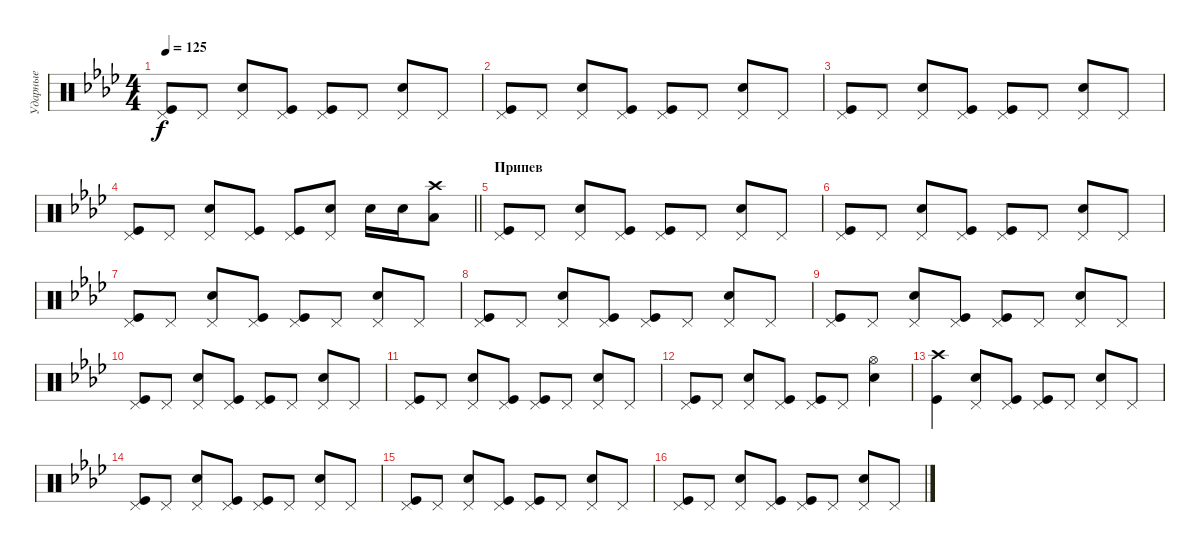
\track ("Ударные" "Ударные") {solo instrument percussion}
\staff {score}
\articulation defaults
\ts (4 4)
\tempo 125
\clef neutral
\ks fminor
("Pedal Hi-Hat (hit)" "Kick (hit)").8{dy f} "Pedal Hi-Hat (hit)".8 ("Pedal Hi-Hat (hit)" "Electric Snare (hit)").8 ("Pedal Hi-Hat (hit)" "Kick (hit)").8 ("Pedal Hi-Hat (hit)" "Kick (hit)").8 "Pedal Hi-Hat (hit)".8 ("Pedal Hi-Hat (hit)" "Electric Snare (hit)").8 "Pedal Hi-Hat (hit)".8 |
("Pedal Hi-Hat (hit)" "Kick (hit)").8 "Pedal Hi-Hat (hit)".8 ("Pedal Hi-Hat (hit)" "Electric Snare (hit)").8 ("Pedal Hi-Hat (hit)" "Kick (hit)").8 ("Pedal Hi-Hat (hit)" "Kick (hit)").8 "Pedal Hi-Hat (hit)".8 ("Pedal Hi-Hat (hit)" "Electric Snare (hit)").8 "Pedal Hi-Hat (hit)".8 |
("Pedal Hi-Hat (hit)" "Kick (hit)").8 "Pedal Hi-Hat (hit)".8 ("Pedal Hi-Hat (hit)" "Electric Snare (hit)").8 ("Pedal Hi-Hat (hit)" "Kick (hit)").8 ("Pedal Hi-Hat (hit)" "Kick (hit)").8 "Pedal Hi-Hat (hit)".8 ("Pedal Hi-Hat (hit)" "Electric Snare (hit)").8 "Pedal Hi-Hat (hit)".8 |
\barLineRight lightlight
("Pedal Hi-Hat (hit)" "Kick (hit)").8 "Pedal Hi-Hat (hit)".8 ("Pedal Hi-Hat (hit)" "Electric Snare (hit)").8 ("Pedal Hi-Hat (hit)" "Kick (hit)").8 ("Pedal Hi-Hat (hit)" "Kick (hit)").8 ("Pedal Hi-Hat (hit)" "Electric Snare (hit)").8 "Electric Snare (hit)".16 "Electric Snare (hit)".16 ("Crash high (hit)" "Low Floor Tom (hit)").8 |
\section ("" "Припев")
("Pedal Hi-Hat (hit)" "Kick (hit)").8 "Pedal Hi-Hat (hit)".8 ("Pedal Hi-Hat (hit)" "Electric Snare (hit)").8 ("Pedal Hi-Hat (hit)" "Kick (hit)").8 ("Pedal Hi-Hat (hit)" "Kick (hit)").8 "Pedal Hi-Hat (hit)".8 ("Pedal Hi-Hat (hit)" "Electric Snare (hit)").8 "Pedal Hi-Hat (hit)".8 |
("Pedal Hi-Hat (hit)" "Kick (hit)").8 "Pedal Hi-Hat (hit)".8 ("Pedal Hi-Hat (hit)" "Electric Snare (hit)").8 ("Pedal Hi-Hat (hit)" "Kick (hit)").8 ("Pedal Hi-Hat (hit)" "Kick (hit)").8 "Pedal Hi-Hat (hit)".8 ("Pedal Hi-Hat (hit)" "Electric Snare (hit)").8 "Pedal Hi-Hat (hit)".8 |
("Pedal Hi-Hat (hit)" "Kick (hit)").8 "Pedal Hi-Hat (hit)".8 ("Pedal Hi-Hat (hit)" "Electric Snare (hit)").8 ("Pedal Hi-Hat (hit)" "Kick (hit)").8 ("Pedal Hi-Hat (hit)" "Kick (hit)").8 "Pedal Hi-Hat (hit)".8 ("Pedal Hi-Hat (hit)" "Electric Snare (hit)").8 "Pedal Hi-Hat (hit)".8 |
("Pedal Hi-Hat (hit)" "Kick (hit)").8 "Pedal Hi-Hat (hit)".8 ("Pedal Hi-Hat (hit)" "Electric Snare (hit)").8 ("Pedal Hi-Hat (hit)" "Kick (hit)").8 ("Pedal Hi-Hat (hit)" "Kick (hit)").8 "Pedal Hi-Hat (hit)".8 ("Pedal Hi-Hat (hit)" "Electric Snare (hit)").8 "Pedal Hi-Hat (hit)".8 |
("Pedal Hi-Hat (hit)" "Kick (hit)").8 "Pedal Hi-Hat (hit)".8 ("Pedal Hi-Hat (hit)" "Electric Snare (hit)").8 ("Pedal Hi-Hat (hit)" "Kick (hit)").8 ("Pedal Hi-Hat (hit)" "Kick (hit)").8 "Pedal Hi-Hat (hit)".8 ("Pedal Hi-Hat (hit)" "Electric Snare (hit)").8 "Pedal Hi-Hat (hit)".8 |
("Pedal Hi-Hat (hit)" "Kick (hit)").8 "Pedal Hi-Hat (hit)".8 ("Pedal Hi-Hat (hit)" "Electric Snare (hit)").8 ("Pedal Hi-Hat (hit)" "Kick (hit)").8 ("Pedal Hi-Hat (hit)" "Kick (hit)").8 "Pedal Hi-Hat (hit)".8 ("Pedal Hi-Hat (hit)" "Electric Snare (hit)").8 "Pedal Hi-Hat (hit)".8 |
("Pedal Hi-Hat (hit)" "Kick (hit)").8 "Pedal Hi-Hat (hit)".8 ("Pedal Hi-Hat (hit)" "Electric Snare (hit)").8 ("Pedal Hi-Hat (hit)" "Kick (hit)").8 ("Pedal Hi-Hat (hit)" "Kick (hit)").8 "Pedal Hi-Hat (hit)".8 ("Pedal Hi-Hat (hit)" "Electric Snare (hit)").8 "Pedal Hi-Hat (hit)".8 |
("Pedal Hi-Hat (hit)" "Kick (hit)").8 "Pedal Hi-Hat (hit)".8 ("Pedal Hi-Hat (hit)" "Electric Snare (hit)").8 ("Pedal Hi-Hat (hit)" "Kick (hit)").8 ("Pedal Hi-Hat (hit)" "Kick (hit)").8 "Pedal Hi-Hat (hit)".8 ("Hi-Hat (open)" "Electric Snare (hit)").4 |
("Crash high (hit)" "Kick (hit)").4 ("Pedal Hi-Hat (hit)" "Electric Snare (hit)").8 ("Pedal Hi-Hat (hit)" "Kick (hit)").8 ("Pedal Hi-Hat (hit)" "Kick (hit)").8 "Pedal Hi-Hat (hit)".8 ("Pedal Hi-Hat (hit)" "Electric Snare (hit)").8 "Pedal Hi-Hat (hit)".8 |
("Pedal Hi-Hat (hit)" "Kick (hit)").8 "Pedal Hi-Hat (hit)".8 ("Pedal Hi-Hat (hit)" "Electric Snare (hit)").8 ("Pedal Hi-Hat (hit)" "Kick (hit)").8 ("Pedal Hi-Hat (hit)" "Kick (hit)").8 "Pedal Hi-Hat (hit)".8 ("Pedal Hi-Hat (hit)" "Electric Snare (hit)").8 "Pedal Hi-Hat (hit)".8 |
("Pedal Hi-Hat (hit)" "Kick (hit)").8 "Pedal Hi-Hat (hit)".8 ("Pedal Hi-Hat (hit)" "Electric Snare (hit)").8 ("Pedal Hi-Hat (hit)" "Kick (hit)").8 ("Pedal Hi-Hat (hit)" "Kick (hit)").8 "Pedal Hi-Hat (hit)".8 ("Pedal Hi-Hat (hit)" "Electric Snare (hit)").8 "Pedal Hi-Hat (hit)".8 |
("Pedal Hi-Hat (hit)" "Kick (hit)").8 "Pedal Hi-Hat (hit)".8 ("Pedal Hi-Hat (hit)" "Electric Snare (hit)").8 ("Pedal Hi-Hat (hit)" "Kick (hit)").8 ("Pedal Hi-Hat (hit)" "Kick (hit)").8 "Pedal Hi-Hat (hit)".8 ("Pedal Hi-Hat (hit)" "Electric Snare (hit)").8 "Pedal Hi-Hat (hit)".8
